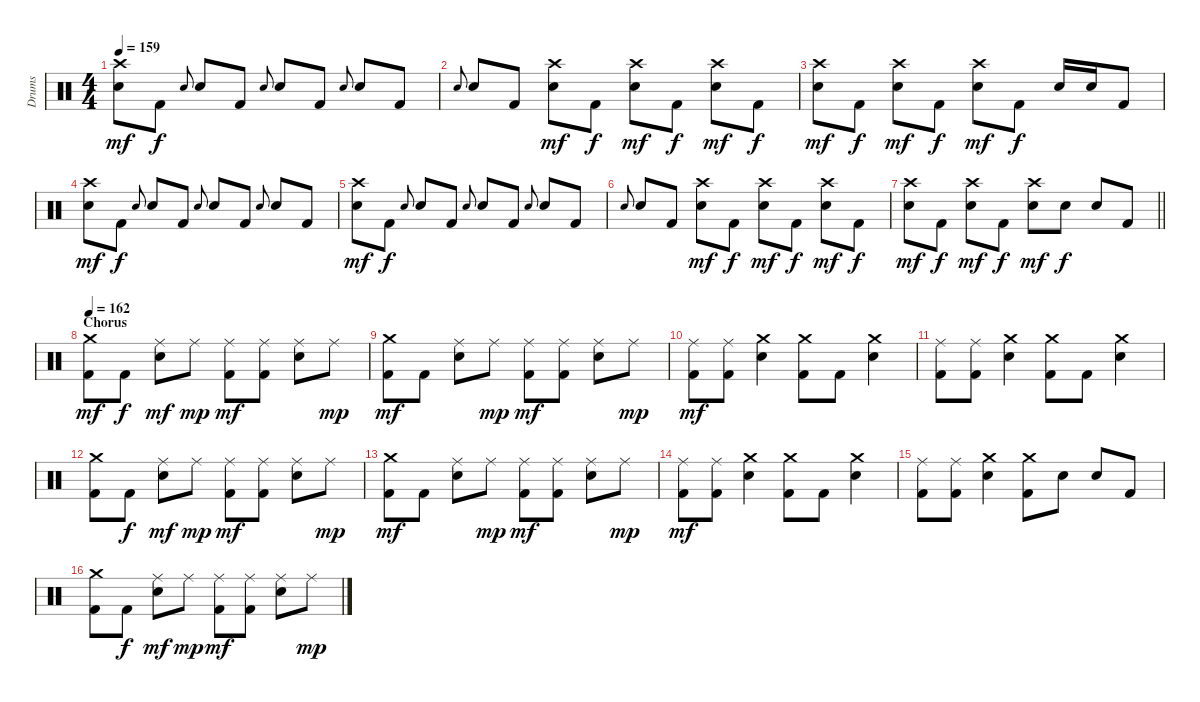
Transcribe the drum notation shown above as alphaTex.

\track ("Drums" "Drums") {instrument percussion}
\staff {score}
\articulation defaults
\ts (4 4)
\tempo 159
\clef neutral
\ks c
("Crash high (hit)" "Electric Snare (hit)").8{dy mf} "Kick (hit) 2".8{dy f} "Electric Snare (hit)".8{gr onbeat} "Electric Snare (hit)".8 "Kick (hit) 2".8 "Electric Snare (hit)".8{gr onbeat} "Electric Snare (hit)".8 "Kick (hit) 2".8 "Electric Snare (hit)".8{gr onbeat} "Electric Snare (hit)".8 "Kick (hit) 2".8 |
"Electric Snare (hit)".8{gr onbeat} "Electric Snare (hit)".8 "Kick (hit) 2".8 ("Crash high (hit)" "Electric Snare (hit)").8{dy mf} "Kick (hit) 2".8{dy f} ("Crash high (hit)" "Electric Snare (hit)").8{dy mf} "Kick (hit) 2".8{dy f} ("Crash high (hit)" "Electric Snare (hit)").8{dy mf} "Kick (hit) 2".8{dy f} |
("Crash high (hit)" "Electric Snare (hit)").8{dy mf} "Kick (hit) 2".8{dy f} ("Crash high (hit)" "Electric Snare (hit)").8{dy mf} "Kick (hit) 2".8{dy f} ("Crash high (hit)" "Electric Snare (hit)").8{dy mf} "Kick (hit) 2".8{dy f} "Electric Snare (hit)".16 "Electric Snare (hit)".16 "Kick (hit) 2".8 |
("Crash high (hit)" "Electric Snare (hit)").8{dy mf} "Kick (hit) 2".8{dy f} "Electric Snare (hit)".8{gr onbeat} "Electric Snare (hit)".8 "Kick (hit) 2".8 "Electric Snare (hit)".8{gr onbeat} "Electric Snare (hit)".8 "Kick (hit) 2".8 "Electric Snare (hit)".8{gr onbeat} "Electric Snare (hit)".8 "Kick (hit) 2".8 |
("Crash high (hit)" "Electric Snare (hit)").8{dy mf} "Kick (hit) 2".8{dy f} "Electric Snare (hit)".8{gr onbeat} "Electric Snare (hit)".8 "Kick (hit) 2".8 "Electric Snare (hit)".8{gr onbeat} "Electric Snare (hit)".8 "Kick (hit) 2".8 "Electric Snare (hit)".8{gr onbeat} "Electric Snare (hit)".8 "Kick (hit) 2".8 |
"Electric Snare (hit)".8{gr onbeat} "Electric Snare (hit)".8 "Kick (hit) 2".8 ("Crash high (hit)" "Electric Snare (hit)").8{dy mf} "Kick (hit) 2".8{dy f} ("Crash high (hit)" "Electric Snare (hit)").8{dy mf} "Kick (hit) 2".8{dy f} ("Crash high (hit)" "Electric Snare (hit)").8{dy mf} "Kick (hit) 2".8{dy f} |
\barLineRight lightlight
("Crash high (hit)" "Electric Snare (hit)").8{dy mf} "Kick (hit) 2".8{dy f} ("Crash high (hit)" "Electric Snare (hit)").8{dy mf} "Kick (hit) 2".8{dy f} ("Crash high (hit)" "Electric Snare (hit)").8{dy mf} "Electric Snare (hit)".8{dy f} "Electric Snare (hit)".8 "Kick (hit) 2".8 |
\section ("" "Chorus")
\tempo 162
("Crash medium (hit)" "Kick (hit) 2").8{dy mf} "Kick (hit) 2".8{dy f} ("Ride (middle)" "Electric Snare (hit)").8{dy mf} "Ride (middle)".8{dy mp} ("Ride (middle)" "Kick (hit) 2").8{dy mf} ("Ride (middle)" "Kick (hit) 2").8 ("Ride (middle)" "Electric Snare (hit)").8 "Ride (middle)".8{dy mp} |
("Crash medium (hit)" "Kick (hit) 2").8{dy mf} "Kick (hit) 2".8 ("Ride (middle)" "Electric Snare (hit)").8 "Ride (middle)".8{dy mp} ("Ride (middle)" "Kick (hit) 2").8{dy mf} ("Ride (middle)" "Kick (hit) 2").8 ("Ride (middle)" "Electric Snare (hit)").8 "Ride (middle)".8{dy mp} |
("Ride (middle)" "Kick (hit) 2").8{dy mf} ("Ride (middle)" "Kick (hit) 2").8 ("Crash medium (hit)" "Electric Snare (hit)").4 ("Crash medium (hit)" "Kick (hit) 2").8 "Kick (hit) 2".8 ("Crash medium (hit)" "Electric Snare (hit)").4 |
("Ride (middle)" "Kick (hit) 2").8 ("Ride (middle)" "Kick (hit) 2").8 ("Crash medium (hit)" "Electric Snare (hit)").4 ("Crash medium (hit)" "Kick (hit) 2").8 "Kick (hit) 2".8 ("Crash medium (hit)" "Electric Snare (hit)").4 |
("Crash medium (hit)" "Kick (hit) 2").8 "Kick (hit) 2".8{dy f} ("Ride (middle)" "Electric Snare (hit)").8{dy mf} "Ride (middle)".8{dy mp} ("Ride (middle)" "Kick (hit) 2").8{dy mf} ("Ride (middle)" "Kick (hit) 2").8 ("Ride (middle)" "Electric Snare (hit)").8 "Ride (middle)".8{dy mp} |
("Crash medium (hit)" "Kick (hit) 2").8{dy mf} "Kick (hit) 2".8 ("Ride (middle)" "Electric Snare (hit)").8 "Ride (middle)".8{dy mp} ("Ride (middle)" "Kick (hit) 2").8{dy mf} ("Ride (middle)" "Kick (hit) 2").8 ("Ride (middle)" "Electric Snare (hit)").8 "Ride (middle)".8{dy mp} |
("Ride (middle)" "Kick (hit) 2").8{dy mf} ("Ride (middle)" "Kick (hit) 2").8 ("Crash medium (hit)" "Electric Snare (hit)").4 ("Crash medium (hit)" "Kick (hit) 2").8 "Kick (hit) 2".8 ("Crash medium (hit)" "Electric Snare (hit)").4 |
("Ride (middle)" "Kick (hit) 2").8 ("Ride (middle)" "Kick (hit) 2").8 ("Crash medium (hit)" "Electric Snare (hit)").4 ("Crash medium (hit)" "Kick (hit) 2").8 "Electric Snare (hit)".8 "Electric Snare (hit)".8 "Kick (hit) 2".8 |
("Crash medium (hit)" "Kick (hit) 2").8 "Kick (hit) 2".8{dy f} ("Ride (middle)" "Electric Snare (hit)").8{dy mf} "Ride (middle)".8{dy mp} ("Ride (middle)" "Kick (hit) 2").8{dy mf} ("Ride (middle)" "Kick (hit) 2").8 ("Ride (middle)" "Electric Snare (hit)").8 "Ride (middle)".8{dy mp}
